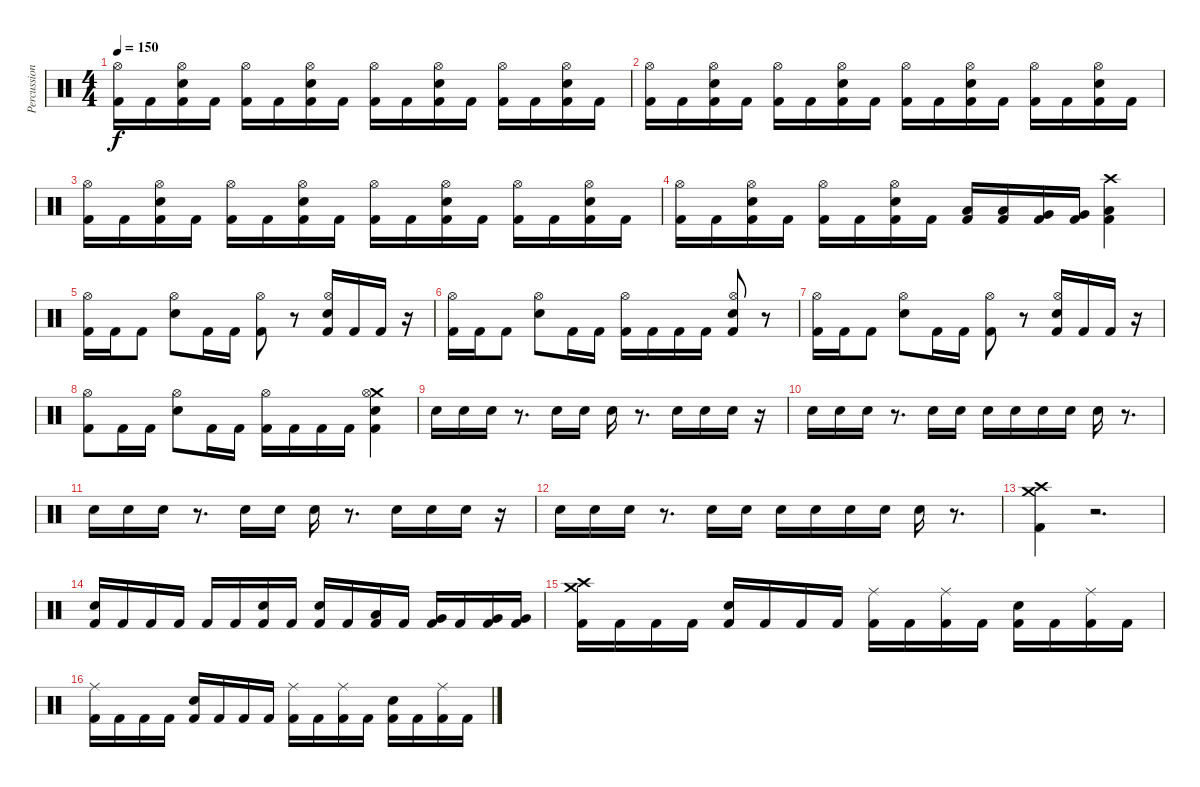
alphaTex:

\track ("Percussion" "Percussion") {instrument percussion}
\staff {score}
\articulation defaults
\ts (4 4)
\tempo 150
\clef neutral
\ks c
("Kick (hit) 2" "Hi-Hat (open)").16{dy f} "Kick (hit) 2".16 ("Kick (hit) 2" "Electric Snare (hit)" "Hi-Hat (open)").16 "Kick (hit) 2".16 ("Kick (hit) 2" "Hi-Hat (open)").16 "Kick (hit) 2".16 ("Kick (hit) 2" "Electric Snare (hit)" "Hi-Hat (open)").16 "Kick (hit) 2".16 ("Kick (hit) 2" "Hi-Hat (open)").16 "Kick (hit) 2".16 ("Kick (hit) 2" "Electric Snare (hit)" "Hi-Hat (open)").16 "Kick (hit) 2".16 ("Kick (hit) 2" "Hi-Hat (open)").16 "Kick (hit) 2".16 ("Kick (hit) 2" "Electric Snare (hit)" "Hi-Hat (open)").16 "Kick (hit) 2".16 |
("Kick (hit) 2" "Hi-Hat (open)").16 "Kick (hit) 2".16 ("Kick (hit) 2" "Electric Snare (hit)" "Hi-Hat (open)").16 "Kick (hit) 2".16 ("Kick (hit) 2" "Hi-Hat (open)").16 "Kick (hit) 2".16 ("Kick (hit) 2" "Electric Snare (hit)" "Hi-Hat (open)").16 "Kick (hit) 2".16 ("Kick (hit) 2" "Hi-Hat (open)").16 "Kick (hit) 2".16 ("Kick (hit) 2" "Electric Snare (hit)" "Hi-Hat (open)").16 "Kick (hit) 2".16 ("Kick (hit) 2" "Hi-Hat (open)").16 "Kick (hit) 2".16 ("Kick (hit) 2" "Electric Snare (hit)" "Hi-Hat (open)").16 "Kick (hit) 2".16 |
("Kick (hit) 2" "Hi-Hat (open)").16 "Kick (hit) 2".16 ("Kick (hit) 2" "Electric Snare (hit)" "Hi-Hat (open)").16 "Kick (hit) 2".16 ("Kick (hit) 2" "Hi-Hat (open)").16 "Kick (hit) 2".16 ("Kick (hit) 2" "Electric Snare (hit)" "Hi-Hat (open)").16 "Kick (hit) 2".16 ("Kick (hit) 2" "Hi-Hat (open)").16 "Kick (hit) 2".16 ("Kick (hit) 2" "Electric Snare (hit)" "Hi-Hat (open)").16 "Kick (hit) 2".16 ("Kick (hit) 2" "Hi-Hat (open)").16 "Kick (hit) 2".16 ("Kick (hit) 2" "Electric Snare (hit)" "Hi-Hat (open)").16 "Kick (hit) 2".16 |
("Kick (hit) 2" "Hi-Hat (open)").16 "Kick (hit) 2".16 ("Kick (hit) 2" "Electric Snare (hit)" "Hi-Hat (open)").16 "Kick (hit) 2".16 ("Kick (hit) 2" "Hi-Hat (open)").16 "Kick (hit) 2".16 ("Kick (hit) 2" "Electric Snare (hit)" "Hi-Hat (open)").16 "Kick (hit) 2".16 ("Kick (hit) 2" "Low Tom (hit)").16 ("Kick (hit) 2" "Low Tom (hit)").16 ("Kick (hit) 2" "Very Low Tom (hit)").16 ("Kick (hit) 2" "Very Low Tom (hit)").16 ("Kick (hit) 2" "Low Tom (hit)" "Crash high (hit)").4 |
("Kick (hit) 2" "Hi-Hat (open)").16 "Kick (hit) 2".16 "Kick (hit) 2".8 ("Electric Snare (hit)" "Hi-Hat (open)").8 "Kick (hit) 2".16 "Kick (hit) 2".16 ("Kick (hit) 2" "Hi-Hat (open)").8 r.8 ("Kick (hit) 2" "Electric Snare (hit)" "Hi-Hat (open)").16 "Kick (hit) 2".16 "Kick (hit) 2".16 r.16 |
("Kick (hit) 2" "Hi-Hat (open)").16 "Kick (hit) 2".16 "Kick (hit) 2".8 ("Electric Snare (hit)" "Hi-Hat (open)").8 "Kick (hit) 2".16 "Kick (hit) 2".16 ("Kick (hit) 2" "Hi-Hat (open)").16 "Kick (hit) 2".16 "Kick (hit) 2".16 "Kick (hit) 2".16 ("Kick (hit) 2" "Electric Snare (hit)" "Hi-Hat (open)").8 r.8 |
("Kick (hit) 2" "Hi-Hat (open)").16 "Kick (hit) 2".16 "Kick (hit) 2".8 ("Electric Snare (hit)" "Hi-Hat (open)").8 "Kick (hit) 2".16 "Kick (hit) 2".16 ("Kick (hit) 2" "Hi-Hat (open)").8 r.8 ("Kick (hit) 2" "Electric Snare (hit)" "Hi-Hat (open)").16 "Kick (hit) 2".16 "Kick (hit) 2".16 r.16 |
("Kick (hit) 2" "Hi-Hat (open)").8 "Kick (hit) 2".16 "Kick (hit) 2".16 ("Electric Snare (hit)" "Hi-Hat (open)").8 "Kick (hit) 2".16 "Kick (hit) 2".16 ("Kick (hit) 2" "Hi-Hat (open)").16 "Kick (hit) 2".16 "Kick (hit) 2".16 "Kick (hit) 2".16 ("Kick (hit) 2" "Electric Snare (hit)" "Crash medium (hit)" "Hi-Hat (open)").4 |
"Electric Snare (hit)".16 "Electric Snare (hit)".16 "Electric Snare (hit)".16 r.8{d} "Electric Snare (hit)".16 "Electric Snare (hit)".16 "Electric Snare (hit)".16 r.8{d} "Electric Snare (hit)".16 "Electric Snare (hit)".16 "Electric Snare (hit)".16 r.16 |
"Electric Snare (hit)".16 "Electric Snare (hit)".16 "Electric Snare (hit)".16 r.8{d} "Electric Snare (hit)".16 "Electric Snare (hit)".16 "Electric Snare (hit)".16 "Electric Snare (hit)".16 "Electric Snare (hit)".16 "Electric Snare (hit)".16 "Electric Snare (hit)".16 r.8{d} |
"Electric Snare (hit)".16 "Electric Snare (hit)".16 "Electric Snare (hit)".16 r.8{d} "Electric Snare (hit)".16 "Electric Snare (hit)".16 "Electric Snare (hit)".16 r.8{d} "Electric Snare (hit)".16 "Electric Snare (hit)".16 "Electric Snare (hit)".16 r.16 |
"Electric Snare (hit)".16 "Electric Snare (hit)".16 "Electric Snare (hit)".16 r.8{d} "Electric Snare (hit)".16 "Electric Snare (hit)".16 "Electric Snare (hit)".16 "Electric Snare (hit)".16 "Electric Snare (hit)".16 "Electric Snare (hit)".16 "Electric Snare (hit)".16 r.8{d} |
("Kick (hit) 2" "Crash medium (hit)" "Crash high (hit)").4 r.2{d} |
("Kick (hit) 2" "Electric Snare (hit)").16 "Kick (hit) 2".16 "Kick (hit) 2".16 "Kick (hit) 2".16 "Kick (hit) 2".16 "Kick (hit) 2".16 ("Kick (hit) 2" "Electric Snare (hit)").16 "Kick (hit) 2".16 ("Kick (hit) 2" "Electric Snare (hit)").16 "Kick (hit) 2".16 ("Kick (hit) 2" "Low Tom (hit)").16 "Kick (hit) 2".16 ("Kick (hit) 2" "Very Low Tom (hit)").16 "Kick (hit) 2".16 ("Kick (hit) 2" "Very Low Tom (hit)").16 ("Kick (hit) 2" "Very Low Tom (hit)").16 |
("Kick (hit) 2" "Crash high (hit)" "Crash medium (hit)").16 "Kick (hit) 2".16 "Kick (hit) 2".16 "Kick (hit) 2".16 ("Kick (hit) 2" "Electric Snare (hit)").16 "Kick (hit) 2".16 "Kick (hit) 2".16 "Kick (hit) 2".16 ("Kick (hit) 2" "Ride (middle)").16 "Kick (hit) 2".16 ("Kick (hit) 2" "Ride (middle)").16 "Kick (hit) 2".16 ("Kick (hit) 2" "Electric Snare (hit)").16 "Kick (hit) 2".16 ("Kick (hit) 2" "Ride (middle)").16 "Kick (hit) 2".16 |
("Kick (hit) 2" "Ride (middle)").16 "Kick (hit) 2".16 "Kick (hit) 2".16 "Kick (hit) 2".16 ("Kick (hit) 2" "Electric Snare (hit)").16 "Kick (hit) 2".16 "Kick (hit) 2".16 "Kick (hit) 2".16 ("Kick (hit) 2" "Ride (middle)").16 "Kick (hit) 2".16 ("Kick (hit) 2" "Ride (middle)").16 "Kick (hit) 2".16 ("Kick (hit) 2" "Electric Snare (hit)").16 "Kick (hit) 2".16 ("Kick (hit) 2" "Ride (middle)").16 "Kick (hit) 2".16
